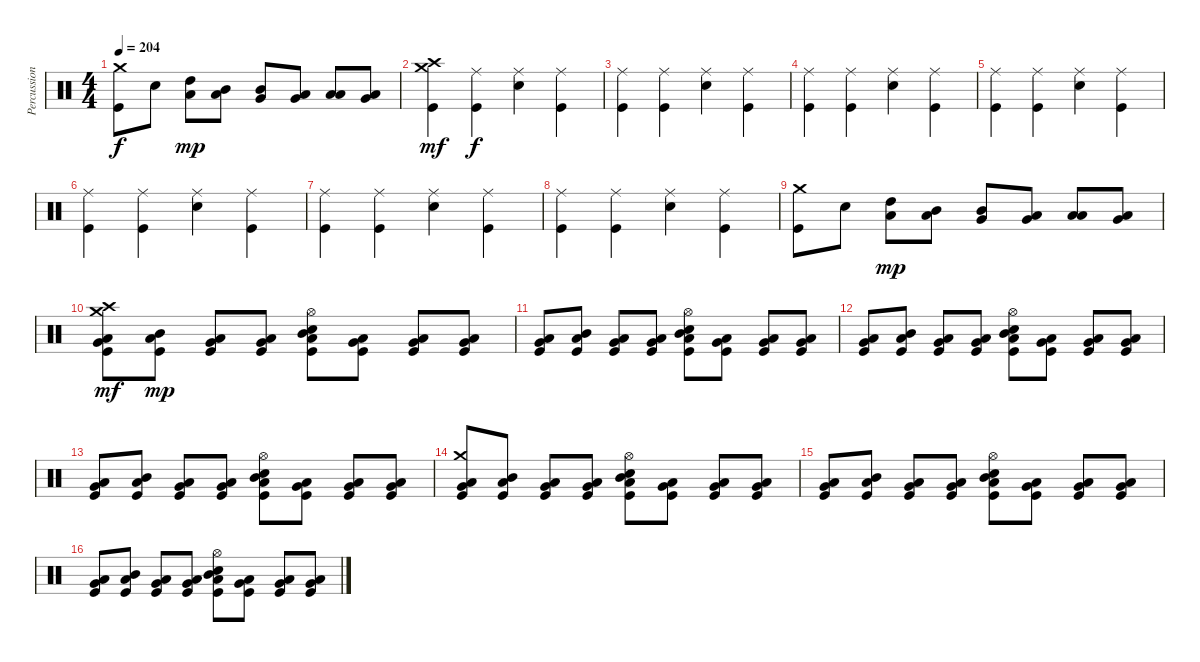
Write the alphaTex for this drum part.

\track ("Percussions" "Percussion") {instrument percussion}
\staff {score}
\articulation defaults
\ts (4 4)
\tempo 204
\clef neutral
\ks c
("Kick (hit)" "Crash medium (hit)").8{dy f} "Electric Snare (hit)".8 ("Low Tom (hit)" "High Tom (hit)").8{dy mp} ("Low Tom (hit)" "Mid Tom (hit)").8 ("Very Low Tom (hit)" "Mid Tom (hit)").8 ("Very Low Tom (hit)" "Low Tom (hit)").8 ("Low Floor Tom (hit)" "Low Tom (hit)").8 ("Low Floor Tom (hit)" "Very Low Tom (hit)").8 |
("Kick (hit)" "Crash high (hit)" "Crash medium (hit)").4{dy mf} ("Kick (hit)" "Ride (middle)").4{dy f} ("Electric Snare (hit)" "Ride (middle)").4 ("Kick (hit)" "Ride (middle)").4 |
("Kick (hit)" "Ride (middle)").4 ("Kick (hit)" "Ride (middle)").4 ("Electric Snare (hit)" "Ride (middle)").4 ("Kick (hit)" "Ride (middle)").4 |
("Kick (hit)" "Ride (middle)").4 ("Kick (hit)" "Ride (middle)").4 ("Electric Snare (hit)" "Ride (middle)").4 ("Kick (hit)" "Ride (middle)").4 |
("Kick (hit)" "Ride (middle)").4 ("Kick (hit)" "Ride (middle)").4 ("Electric Snare (hit)" "Ride (middle)").4 ("Kick (hit)" "Ride (middle)").4 |
("Kick (hit)" "Ride (middle)").4 ("Kick (hit)" "Ride (middle)").4 ("Electric Snare (hit)" "Ride (middle)").4 ("Kick (hit)" "Ride (middle)").4 |
("Kick (hit)" "Ride (middle)").4 ("Kick (hit)" "Ride (middle)").4 ("Electric Snare (hit)" "Ride (middle)").4 ("Kick (hit)" "Ride (middle)").4 |
("Kick (hit)" "Ride (middle)").4 ("Kick (hit)" "Ride (middle)").4 ("Electric Snare (hit)" "Ride (middle)").4 ("Kick (hit)" "Ride (middle)").4 |
("Kick (hit)" "Crash medium (hit)").8 "Electric Snare (hit)".8 ("Low Tom (hit)" "High Tom (hit)").8{dy mp} ("Low Tom (hit)" "Mid Tom (hit)").8 ("Very Low Tom (hit)" "Mid Tom (hit)").8 ("Very Low Tom (hit)" "Low Tom (hit)").8 ("Low Floor Tom (hit)" "Low Tom (hit)").8 ("Low Floor Tom (hit)" "Very Low Tom (hit)").8 |
("Kick (hit)" "Very Low Tom (hit)" "Low Tom (hit)" "Crash medium (hit)" "Crash high (hit)").8{dy mf} ("Kick (hit)" "Low Tom (hit)" "Mid Tom (hit)").8{dy mp} ("Kick (hit)" "Very Low Tom (hit)" "Low Tom (hit)").8 ("Kick (hit)" "Low Floor Tom (hit)" "Very Low Tom (hit)").8 ("Kick (hit)" "Electric Snare (hit)" "Low Tom (hit)" "Mid Tom (hit)" "Hi-Hat (open)").8 ("Kick (hit)" "Very Low Tom (hit)" "Low Tom (hit)").8 ("Kick (hit)" "Low Floor Tom (hit)" "Very Low Tom (hit)").8 ("Kick (hit)" "Very Low Tom (hit)" "Low Tom (hit)").8 |
("Kick (hit)" "Very Low Tom (hit)" "Low Tom (hit)").8 ("Kick (hit)" "Low Tom (hit)" "Mid Tom (hit)").8 ("Kick (hit)" "Very Low Tom (hit)" "Low Tom (hit)").8 ("Kick (hit)" "Low Floor Tom (hit)" "Very Low Tom (hit)").8 ("Kick (hit)" "Electric Snare (hit)" "Low Tom (hit)" "Mid Tom (hit)" "Hi-Hat (open)").8 ("Kick (hit)" "Very Low Tom (hit)" "Low Tom (hit)").8 ("Kick (hit)" "Low Floor Tom (hit)" "Very Low Tom (hit)").8 ("Kick (hit)" "Very Low Tom (hit)" "Low Tom (hit)").8 |
("Kick (hit)" "Very Low Tom (hit)" "Low Tom (hit)").8 ("Kick (hit)" "Low Tom (hit)" "Mid Tom (hit)").8 ("Kick (hit)" "Very Low Tom (hit)" "Low Tom (hit)").8 ("Kick (hit)" "Low Floor Tom (hit)" "Very Low Tom (hit)").8 ("Kick (hit)" "Electric Snare (hit)" "Low Tom (hit)" "Mid Tom (hit)" "Hi-Hat (open)").8 ("Kick (hit)" "Very Low Tom (hit)" "Low Tom (hit)").8 ("Kick (hit)" "Low Floor Tom (hit)" "Very Low Tom (hit)").8 ("Kick (hit)" "Very Low Tom (hit)" "Low Tom (hit)").8 |
("Kick (hit)" "Very Low Tom (hit)" "Low Tom (hit)").8 ("Kick (hit)" "Low Tom (hit)" "Mid Tom (hit)").8 ("Kick (hit)" "Very Low Tom (hit)" "Low Tom (hit)").8 ("Kick (hit)" "Low Floor Tom (hit)" "Very Low Tom (hit)").8 ("Kick (hit)" "Electric Snare (hit)" "Low Tom (hit)" "Mid Tom (hit)" "Hi-Hat (open)").8 ("Kick (hit)" "Very Low Tom (hit)" "Low Tom (hit)").8 ("Kick (hit)" "Low Floor Tom (hit)" "Very Low Tom (hit)").8 ("Kick (hit)" "Very Low Tom (hit)" "Low Tom (hit)").8 |
("Kick (hit)" "Very Low Tom (hit)" "Low Tom (hit)" "Crash medium (hit)").8 ("Kick (hit)" "Low Tom (hit)" "Mid Tom (hit)").8 ("Kick (hit)" "Very Low Tom (hit)" "Low Tom (hit)").8 ("Kick (hit)" "Low Floor Tom (hit)" "Very Low Tom (hit)").8 ("Kick (hit)" "Electric Snare (hit)" "Low Tom (hit)" "Mid Tom (hit)" "Hi-Hat (open)").8 ("Kick (hit)" "Very Low Tom (hit)" "Low Tom (hit)").8 ("Kick (hit)" "Low Floor Tom (hit)" "Very Low Tom (hit)").8 ("Kick (hit)" "Very Low Tom (hit)" "Low Tom (hit)").8 |
("Kick (hit)" "Very Low Tom (hit)" "Low Tom (hit)").8 ("Kick (hit)" "Low Tom (hit)" "Mid Tom (hit)").8 ("Kick (hit)" "Very Low Tom (hit)" "Low Tom (hit)").8 ("Kick (hit)" "Low Floor Tom (hit)" "Very Low Tom (hit)").8 ("Kick (hit)" "Electric Snare (hit)" "Low Tom (hit)" "Mid Tom (hit)" "Hi-Hat (open)").8 ("Kick (hit)" "Very Low Tom (hit)" "Low Tom (hit)").8 ("Kick (hit)" "Low Floor Tom (hit)" "Very Low Tom (hit)").8 ("Kick (hit)" "Very Low Tom (hit)" "Low Tom (hit)").8 |
("Kick (hit)" "Very Low Tom (hit)" "Low Tom (hit)").8 ("Kick (hit)" "Low Tom (hit)" "Mid Tom (hit)").8 ("Kick (hit)" "Very Low Tom (hit)" "Low Tom (hit)").8 ("Kick (hit)" "Low Floor Tom (hit)" "Very Low Tom (hit)").8 ("Kick (hit)" "Electric Snare (hit)" "Low Tom (hit)" "Mid Tom (hit)" "Hi-Hat (open)").8 ("Kick (hit)" "Very Low Tom (hit)" "Low Tom (hit)").8 ("Kick (hit)" "Low Floor Tom (hit)" "Very Low Tom (hit)").8 ("Kick (hit)" "Very Low Tom (hit)" "Low Tom (hit)").8
